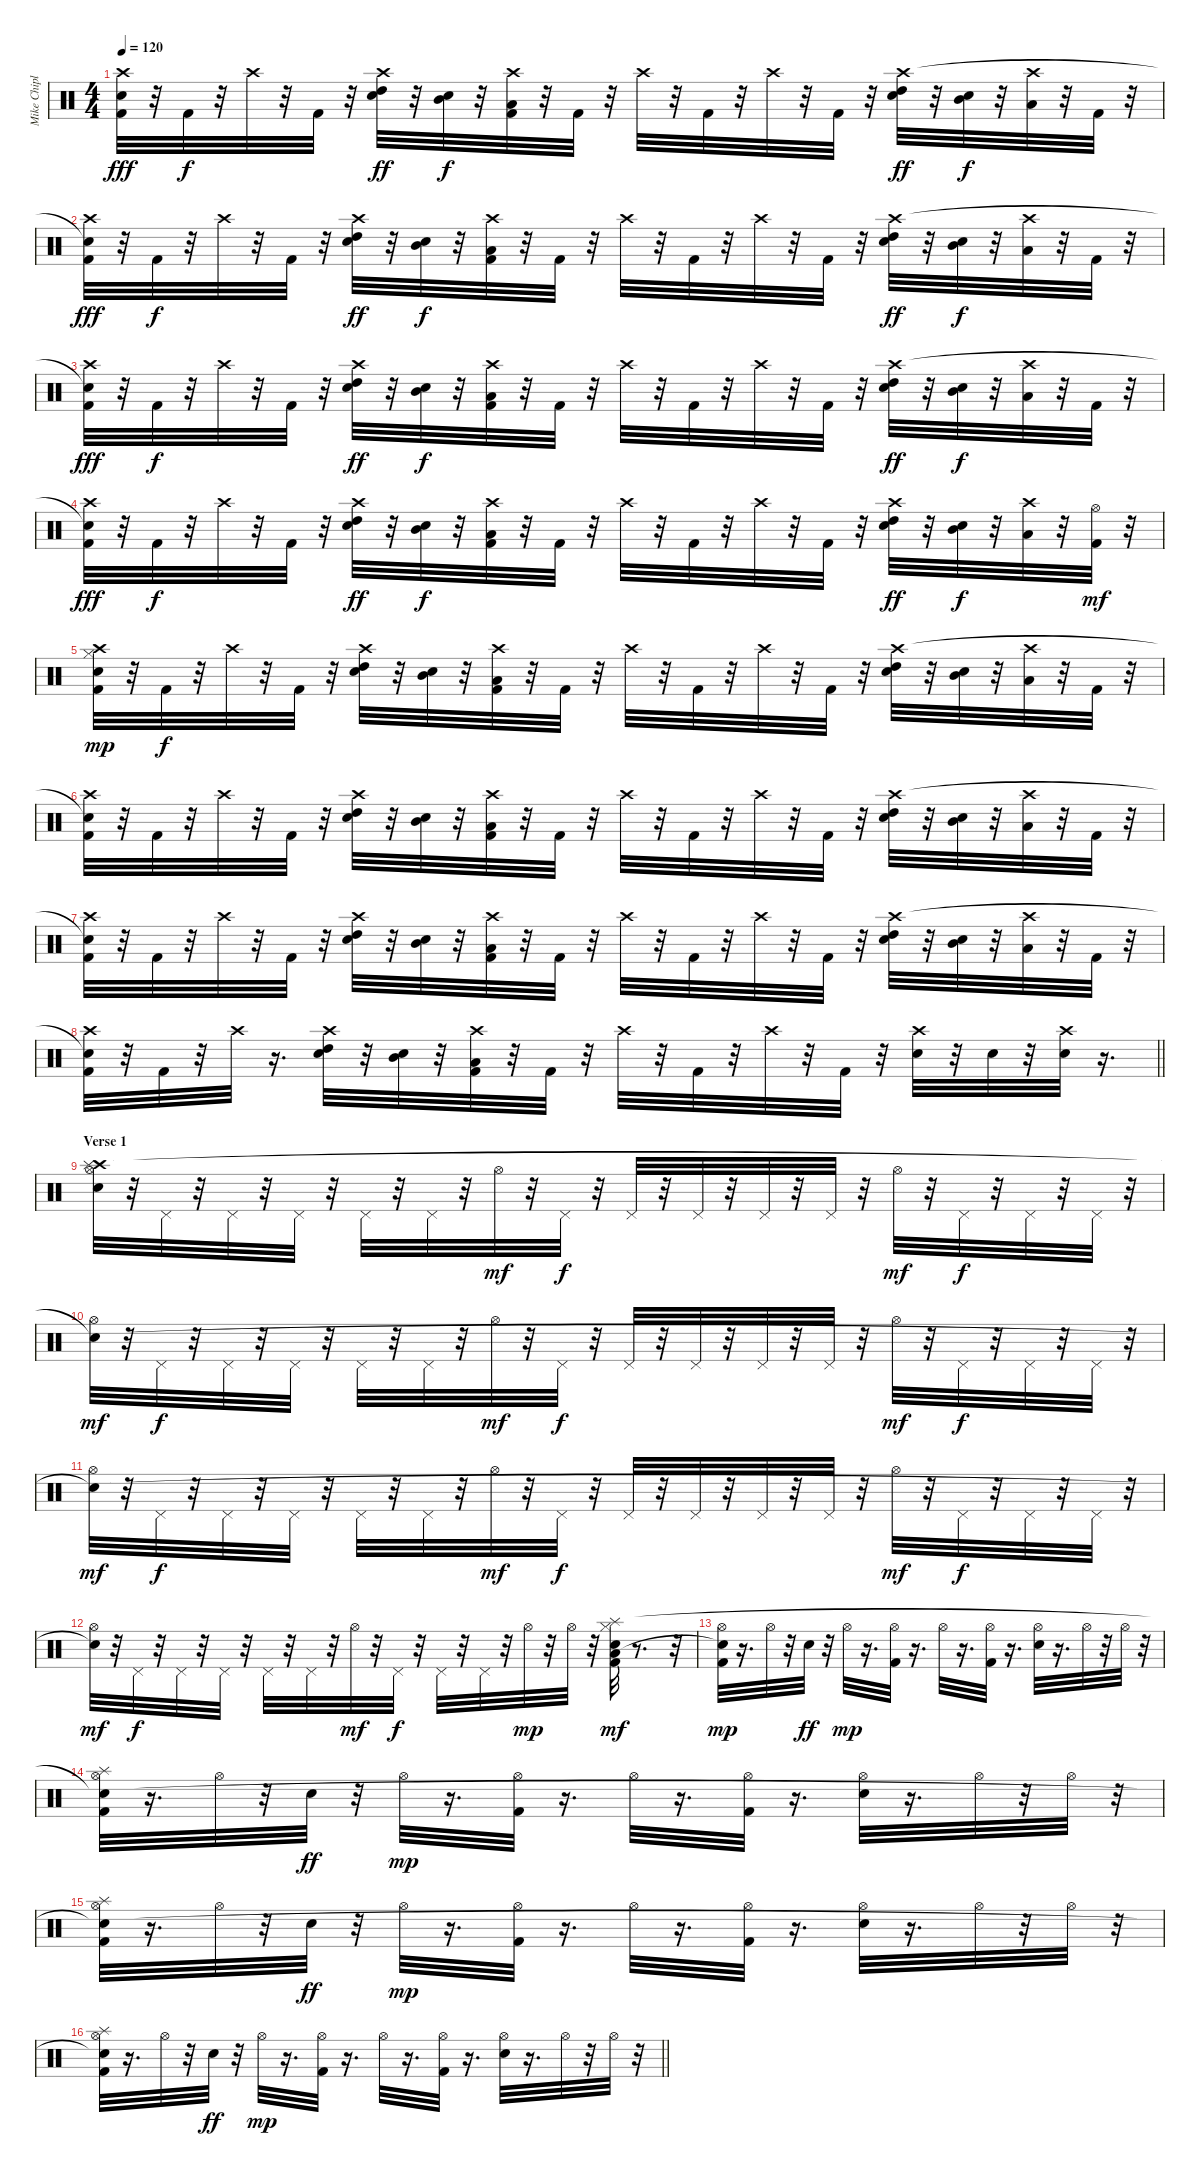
\track ("Mike Chiplin - Drums" "Mike Chipl") {instrument percussion}
\staff {score}
\articulation defaults
\ts (4 4)
\tempo 120
\clef neutral
\ks c
("Kick (hit) 2" "Crash high (hit)" "Snare (hit)"{t}).32{dy fff} r.32 "Kick (hit) 2".32{dy f} r.32 "Crash high (hit)".32 r.32 "Kick (hit) 2".32 r.32 ("Snare (hit) 2" "High Tom (hit)" "Crash high (hit)").32{dy ff} r.32 ("Snare (hit) 2" "Mid Tom (hit)").32{dy f} r.32 ("Kick (hit) 2" "Low Tom (hit)" "Crash high (hit)").32 r.32 "Kick (hit) 2".32 r.32 "Crash high (hit)".32 r.32 "Kick (hit) 2".32 r.32 "Crash high (hit)".32 r.32 "Kick (hit) 2".32 r.32 ("Snare (hit) 2" "High Tom (hit)" "Crash high (hit)").32{dy ff} r.32 ("Snare (hit) 2" "Mid Tom (hit)").32{dy f} r.32 ("Low Tom (hit)" "Crash high (hit)").32 r.32 "Kick (hit) 2".32 r.32 |
("Kick (hit) 2" "Crash high (hit)" "Snare (hit)"{t}).32{dy fff} r.32 "Kick (hit) 2".32{dy f} r.32 "Crash high (hit)".32 r.32 "Kick (hit) 2".32 r.32 ("Snare (hit) 2" "High Tom (hit)" "Crash high (hit)").32{dy ff} r.32 ("Snare (hit) 2" "Mid Tom (hit)").32{dy f} r.32 ("Kick (hit) 2" "Low Tom (hit)" "Crash high (hit)").32 r.32 "Kick (hit) 2".32 r.32 "Crash high (hit)".32 r.32 "Kick (hit) 2".32 r.32 "Crash high (hit)".32 r.32 "Kick (hit) 2".32 r.32 ("Snare (hit) 2" "High Tom (hit)" "Crash high (hit)").32{dy ff} r.32 ("Snare (hit) 2" "Mid Tom (hit)").32{dy f} r.32 ("Low Tom (hit)" "Crash high (hit)").32 r.32 "Kick (hit) 2".32 r.32 |
("Kick (hit) 2" "Crash high (hit)" "Snare (hit)"{t}).32{dy fff} r.32 "Kick (hit) 2".32{dy f} r.32 "Crash high (hit)".32 r.32 "Kick (hit) 2".32 r.32 ("Snare (hit) 2" "High Tom (hit)" "Crash high (hit)").32{dy ff} r.32 ("Snare (hit) 2" "Mid Tom (hit)").32{dy f} r.32 ("Kick (hit) 2" "Low Tom (hit)" "Crash high (hit)").32 r.32 "Kick (hit) 2".32 r.32 "Crash high (hit)".32 r.32 "Kick (hit) 2".32 r.32 "Crash high (hit)".32 r.32 "Kick (hit) 2".32 r.32 ("Snare (hit) 2" "High Tom (hit)" "Crash high (hit)").32{dy ff} r.32 ("Snare (hit) 2" "Mid Tom (hit)").32{dy f} r.32 ("Low Tom (hit)" "Crash high (hit)").32 r.32 "Kick (hit) 2".32 r.32 |
("Kick (hit) 2" "Crash high (hit)" "Snare (hit)"{t}).32{dy fff} r.32 "Kick (hit) 2".32{dy f} r.32 "Crash high (hit)".32 r.32 "Kick (hit) 2".32 r.32 ("Snare (hit) 2" "High Tom (hit)" "Crash high (hit)").32{dy ff} r.32 ("Snare (hit) 2" "Mid Tom (hit)").32{dy f} r.32 ("Kick (hit) 2" "Low Tom (hit)" "Crash high (hit)").32 r.32 "Kick (hit) 2".32 r.32 "Crash high (hit)".32 r.32 "Kick (hit) 2".32 r.32 "Crash high (hit)".32 r.32 "Kick (hit) 2".32 r.32 ("Snare (hit) 2" "High Tom (hit)" "Crash high (hit)").32{dy ff} r.32 ("Snare (hit) 2" "Mid Tom (hit)").32{dy f} r.32 ("Low Tom (hit)" "Crash high (hit)").32 r.32 ("Kick (hit) 2" "Hi-Hat (open)").32{dy mf} r.32 |
("Kick (hit) 2" "Crash high (hit)" "Hi-Hat (closed)" "Snare (hit)").32{dy mp} r.32 "Kick (hit) 2".32{dy f} r.32 "Crash high (hit)".32 r.32 "Kick (hit) 2".32 r.32 ("Snare (hit) 2" "High Tom (hit)" "Crash high (hit)").32 r.32 ("Snare (hit) 2" "Mid Tom (hit)").32 r.32 ("Kick (hit) 2" "Low Tom (hit)" "Crash high (hit)").32 r.32 "Kick (hit) 2".32 r.32 "Crash high (hit)".32 r.32 "Kick (hit) 2".32 r.32 "Crash high (hit)".32 r.32 "Kick (hit) 2".32 r.32 ("Snare (hit) 2" "High Tom (hit)" "Crash high (hit)").32 r.32 ("Snare (hit) 2" "Mid Tom (hit)").32 r.32 ("Low Tom (hit)" "Crash high (hit)").32 r.32 "Kick (hit) 2".32 r.32 |
("Kick (hit) 2" "Crash high (hit)" "Snare (hit)"{t}).32 r.32 "Kick (hit) 2".32 r.32 "Crash high (hit)".32 r.32 "Kick (hit) 2".32 r.32 ("Snare (hit) 2" "High Tom (hit)" "Crash high (hit)").32 r.32 ("Snare (hit) 2" "Mid Tom (hit)").32 r.32 ("Kick (hit) 2" "Low Tom (hit)" "Crash high (hit)").32 r.32 "Kick (hit) 2".32 r.32 "Crash high (hit)".32 r.32 "Kick (hit) 2".32 r.32 "Crash high (hit)".32 r.32 "Kick (hit) 2".32 r.32 ("Snare (hit) 2" "High Tom (hit)" "Crash high (hit)").32 r.32 ("Snare (hit) 2" "Mid Tom (hit)").32 r.32 ("Low Tom (hit)" "Crash high (hit)").32 r.32 "Kick (hit) 2".32 r.32 |
("Kick (hit) 2" "Crash high (hit)" "Snare (hit)"{t}).32 r.32 "Kick (hit) 2".32 r.32 "Crash high (hit)".32 r.32 "Kick (hit) 2".32 r.32 ("Snare (hit) 2" "High Tom (hit)" "Crash high (hit)").32 r.32 ("Snare (hit) 2" "Mid Tom (hit)").32 r.32 ("Kick (hit) 2" "Low Tom (hit)" "Crash high (hit)").32 r.32 "Kick (hit) 2".32 r.32 "Crash high (hit)".32 r.32 "Kick (hit) 2".32 r.32 "Crash high (hit)".32 r.32 "Kick (hit) 2".32 r.32 ("Snare (hit) 2" "High Tom (hit)" "Crash high (hit)").32 r.32 ("Snare (hit) 2" "Mid Tom (hit)").32 r.32 ("Low Tom (hit)" "Crash high (hit)").32 r.32 "Kick (hit) 2".32 r.32 |
\barLineRight lightlight
("Kick (hit) 2" "Crash high (hit)" "Snare (hit)"{t}).32 r.32 "Kick (hit) 2".32 r.32 "Crash high (hit)".32 r.16{d} ("Snare (hit) 2" "High Tom (hit)" "Crash high (hit)").32 r.32 ("Snare (hit) 2" "Mid Tom (hit)").32 r.32 ("Kick (hit) 2" "Low Tom (hit)" "Crash high (hit)").32 r.32 "Kick (hit) 2".32 r.32 "Crash high (hit)".32 r.32 "Kick (hit) 2".32 r.32 "Crash high (hit)".32 r.32 "Kick (hit) 2".32 r.32 ("Snare (hit) 2" "Crash high (hit)").32 r.32 "Snare (hit) 2".32 r.32 ("Snare (hit) 2" "Crash high (hit)").32 r.16{d} |
\section ("" "Verse 1")
("Hi-Hat (open)" "Crash high (hit)" "Splash (hit)" "Snare (hit)").32 r.32 "Pedal Hi-Hat (hit)".32 r.32 "Pedal Hi-Hat (hit)".32 r.32 "Pedal Hi-Hat (hit)".32 r.32 "Pedal Hi-Hat (hit)".32 r.32 "Pedal Hi-Hat (hit)".32 r.32 "Hi-Hat (open)".32{dy mf} r.32 "Pedal Hi-Hat (hit)".32{dy f} r.32 "Pedal Hi-Hat (hit)".32 r.32 "Pedal Hi-Hat (hit)".32 r.32 "Pedal Hi-Hat (hit)".32 r.32 "Pedal Hi-Hat (hit)".32 r.32 "Hi-Hat (open)".32{dy mf} r.32 "Pedal Hi-Hat (hit)".32{dy f} r.32 "Pedal Hi-Hat (hit)".32 r.32 "Pedal Hi-Hat (hit)".32 r.32 |
("Hi-Hat (open)" "Snare (hit)"{t}).32{dy mf} r.32 "Pedal Hi-Hat (hit)".32{dy f} r.32 "Pedal Hi-Hat (hit)".32 r.32 "Pedal Hi-Hat (hit)".32 r.32 "Pedal Hi-Hat (hit)".32 r.32 "Pedal Hi-Hat (hit)".32 r.32 "Hi-Hat (open)".32{dy mf} r.32 "Pedal Hi-Hat (hit)".32{dy f} r.32 "Pedal Hi-Hat (hit)".32 r.32 "Pedal Hi-Hat (hit)".32 r.32 "Pedal Hi-Hat (hit)".32 r.32 "Pedal Hi-Hat (hit)".32 r.32 "Hi-Hat (open)".32{dy mf} r.32 "Pedal Hi-Hat (hit)".32{dy f} r.32 "Pedal Hi-Hat (hit)".32 r.32 "Pedal Hi-Hat (hit)".32 r.32 |
("Hi-Hat (open)" "Snare (hit)"{t}).32{dy mf} r.32 "Pedal Hi-Hat (hit)".32{dy f} r.32 "Pedal Hi-Hat (hit)".32 r.32 "Pedal Hi-Hat (hit)".32 r.32 "Pedal Hi-Hat (hit)".32 r.32 "Pedal Hi-Hat (hit)".32 r.32 "Hi-Hat (open)".32{dy mf} r.32 "Pedal Hi-Hat (hit)".32{dy f} r.32 "Pedal Hi-Hat (hit)".32 r.32 "Pedal Hi-Hat (hit)".32 r.32 "Pedal Hi-Hat (hit)".32 r.32 "Pedal Hi-Hat (hit)".32 r.32 "Hi-Hat (open)".32{dy mf} r.32 "Pedal Hi-Hat (hit)".32{dy f} r.32 "Pedal Hi-Hat (hit)".32 r.32 "Pedal Hi-Hat (hit)".32 r.32 |
("Hi-Hat (open)" "Snare (hit)"{t}).32{dy mf} r.32 "Pedal Hi-Hat (hit)".32{dy f} r.32 "Pedal Hi-Hat (hit)".32 r.32 "Pedal Hi-Hat (hit)".32 r.32 "Pedal Hi-Hat (hit)".32 r.32 "Pedal Hi-Hat (hit)".32 r.32 "Hi-Hat (open)".32{dy mf} r.32 "Pedal Hi-Hat (hit)".32{dy f} r.32 "Pedal Hi-Hat (hit)".32 r.32 "Pedal Hi-Hat (hit)".32 r.32 "Hi-Hat (open)".32{dy mp} r.32 "Hi-Hat (open)".32 r.32 ("Kick (hit) 2" "Snare (hit) 2" "Low Tom (hit)" "Splash (hit)" "Hi-Hat (closed)").32{dy mf} r.8{d} r.32 |
("Kick (hit) 2" "Hi-Hat (open)" "Snare (hit)"{t}).32{dy mp} r.16{d} "Hi-Hat (open)".32 r.32 "Snare (hit) 2".32{dy ff} r.32 "Hi-Hat (open)".32{dy mp} r.16{d} ("Kick (hit) 2" "Hi-Hat (open)").32 r.16{d} "Hi-Hat (open)".32 r.16{d} ("Kick (hit) 2" "Hi-Hat (open)").32 r.16{d} ("Snare (hit) 2" "Hi-Hat (open)").32 r.16{d} "Hi-Hat (open)".32 r.32 "Hi-Hat (open)".32 r.32 |
("Kick (hit) 2" "Hi-Hat (open)" "Splash (hit)" "Snare (hit)"{t}).32 r.16{d} "Hi-Hat (open)".32 r.32 "Snare (hit) 2".32{dy ff} r.32 "Hi-Hat (open)".32{dy mp} r.16{d} ("Kick (hit) 2" "Hi-Hat (open)").32 r.16{d} "Hi-Hat (open)".32 r.16{d} ("Kick (hit) 2" "Hi-Hat (open)").32 r.16{d} ("Snare (hit) 2" "Hi-Hat (open)").32 r.16{d} "Hi-Hat (open)".32 r.32 "Hi-Hat (open)".32 r.32 |
("Kick (hit) 2" "Hi-Hat (open)" "Splash (hit)" "Snare (hit)"{t}).32 r.16{d} "Hi-Hat (open)".32 r.32 "Snare (hit) 2".32{dy ff} r.32 "Hi-Hat (open)".32{dy mp} r.16{d} ("Kick (hit) 2" "Hi-Hat (open)").32 r.16{d} "Hi-Hat (open)".32 r.16{d} ("Kick (hit) 2" "Hi-Hat (open)").32 r.16{d} ("Snare (hit) 2" "Hi-Hat (open)").32 r.16{d} "Hi-Hat (open)".32 r.32 "Hi-Hat (open)".32 r.32 |
\barLineRight lightlight
("Kick (hit) 2" "Hi-Hat (open)" "Splash (hit)" "Snare (hit)"{t}).32 r.16{d} "Hi-Hat (open)".32 r.32 "Snare (hit) 2".32{dy ff} r.32 "Hi-Hat (open)".32{dy mp} r.16{d} ("Kick (hit) 2" "Hi-Hat (open)").32 r.16{d} "Hi-Hat (open)".32 r.16{d} ("Kick (hit) 2" "Hi-Hat (open)").32 r.16{d} ("Snare (hit) 2" "Hi-Hat (open)").32 r.16{d} "Hi-Hat (open)".32 r.32 "Hi-Hat (open)".32 r.32
